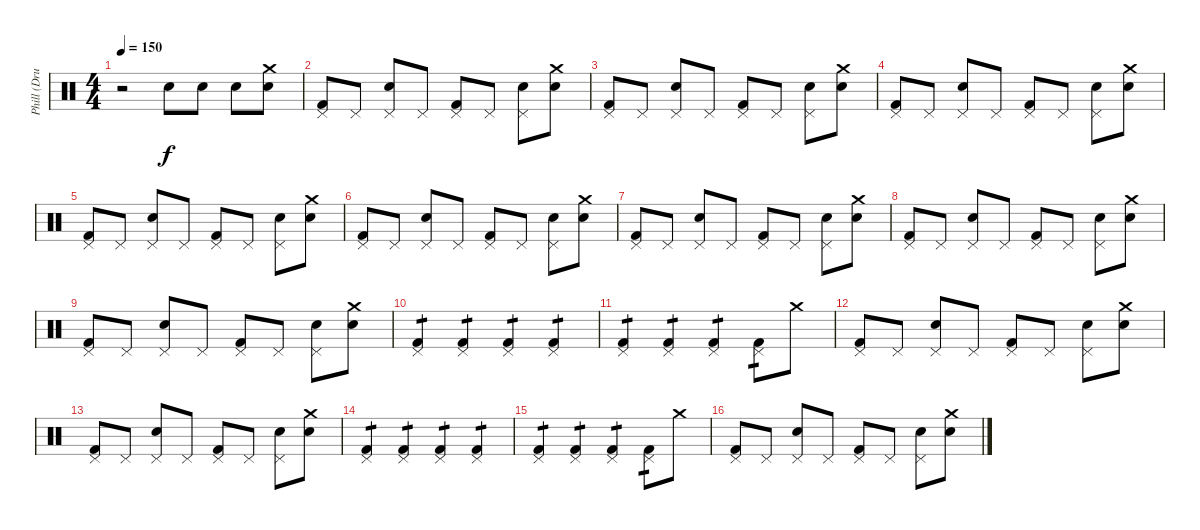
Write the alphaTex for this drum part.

\track ("Phill (Drums)" "Phill (Dru") {instrument percussion}
\staff {score}
\articulation defaults
\ts (4 4)
\tempo 150
\clef neutral
\ks c
r.2{dy f} "Snare (hit) 2".8 "Snare (hit) 2".8 "Snare (hit) 2".8 ("Crash medium (hit)" "Snare (hit) 2").8 |
("Kick (hit) 2" "Pedal Hi-Hat (hit)").8 "Pedal Hi-Hat (hit)".8 ("Snare (hit) 2" "Pedal Hi-Hat (hit)").8 "Pedal Hi-Hat (hit)".8 ("Kick (hit) 2" "Pedal Hi-Hat (hit)").8 "Pedal Hi-Hat (hit)".8 ("Snare (hit) 2" "Pedal Hi-Hat (hit)").8 ("Snare (hit) 2" "Crash medium (hit)").8 |
("Kick (hit) 2" "Pedal Hi-Hat (hit)").8 "Pedal Hi-Hat (hit)".8 ("Snare (hit) 2" "Pedal Hi-Hat (hit)").8 "Pedal Hi-Hat (hit)".8 ("Kick (hit) 2" "Pedal Hi-Hat (hit)").8 "Pedal Hi-Hat (hit)".8 ("Snare (hit) 2" "Pedal Hi-Hat (hit)").8 ("Snare (hit) 2" "Crash medium (hit)").8 |
("Kick (hit) 2" "Pedal Hi-Hat (hit)").8 "Pedal Hi-Hat (hit)".8 ("Snare (hit) 2" "Pedal Hi-Hat (hit)").8 "Pedal Hi-Hat (hit)".8 ("Kick (hit) 2" "Pedal Hi-Hat (hit)").8 "Pedal Hi-Hat (hit)".8 ("Snare (hit) 2" "Pedal Hi-Hat (hit)").8 ("Snare (hit) 2" "Crash medium (hit)").8 |
("Kick (hit) 2" "Pedal Hi-Hat (hit)").8 "Pedal Hi-Hat (hit)".8 ("Snare (hit) 2" "Pedal Hi-Hat (hit)").8 "Pedal Hi-Hat (hit)".8 ("Kick (hit) 2" "Pedal Hi-Hat (hit)").8 "Pedal Hi-Hat (hit)".8 ("Snare (hit) 2" "Pedal Hi-Hat (hit)").8 ("Snare (hit) 2" "Crash medium (hit)").8 |
("Kick (hit) 2" "Pedal Hi-Hat (hit)").8 "Pedal Hi-Hat (hit)".8 ("Snare (hit) 2" "Pedal Hi-Hat (hit)").8 "Pedal Hi-Hat (hit)".8 ("Kick (hit) 2" "Pedal Hi-Hat (hit)").8 "Pedal Hi-Hat (hit)".8 ("Snare (hit) 2" "Pedal Hi-Hat (hit)").8 ("Snare (hit) 2" "Crash medium (hit)").8 |
("Kick (hit) 2" "Pedal Hi-Hat (hit)").8 "Pedal Hi-Hat (hit)".8 ("Snare (hit) 2" "Pedal Hi-Hat (hit)").8 "Pedal Hi-Hat (hit)".8 ("Kick (hit) 2" "Pedal Hi-Hat (hit)").8 "Pedal Hi-Hat (hit)".8 ("Snare (hit) 2" "Pedal Hi-Hat (hit)").8 ("Snare (hit) 2" "Crash medium (hit)").8 |
("Kick (hit) 2" "Pedal Hi-Hat (hit)").8 "Pedal Hi-Hat (hit)".8 ("Snare (hit) 2" "Pedal Hi-Hat (hit)").8 "Pedal Hi-Hat (hit)".8 ("Kick (hit) 2" "Pedal Hi-Hat (hit)").8 "Pedal Hi-Hat (hit)".8 ("Snare (hit) 2" "Pedal Hi-Hat (hit)").8 ("Snare (hit) 2" "Crash medium (hit)").8 |
("Kick (hit) 2" "Pedal Hi-Hat (hit)").8 "Pedal Hi-Hat (hit)".8 ("Snare (hit) 2" "Pedal Hi-Hat (hit)").8 "Pedal Hi-Hat (hit)".8 ("Kick (hit) 2" "Pedal Hi-Hat (hit)").8 "Pedal Hi-Hat (hit)".8 ("Snare (hit) 2" "Pedal Hi-Hat (hit)").8 ("Snare (hit) 2" "Crash medium (hit)").8 |
("Kick (hit) 2" "Pedal Hi-Hat (hit)").4{tp 1} ("Kick (hit) 2" "Pedal Hi-Hat (hit)").4{tp 1} ("Kick (hit) 2" "Pedal Hi-Hat (hit)").4{tp 1} ("Kick (hit) 2" "Pedal Hi-Hat (hit)").4{tp 1} |
("Kick (hit) 2" "Pedal Hi-Hat (hit)").4{tp 1} ("Kick (hit) 2" "Pedal Hi-Hat (hit)").4{tp 1} ("Kick (hit) 2" "Pedal Hi-Hat (hit)").4{tp 1} ("Kick (hit) 2" "Pedal Hi-Hat (hit)").8{tp 1} "Crash medium (hit)".8 |
("Kick (hit) 2" "Pedal Hi-Hat (hit)").8 "Pedal Hi-Hat (hit)".8 ("Snare (hit) 2" "Pedal Hi-Hat (hit)").8 "Pedal Hi-Hat (hit)".8 ("Kick (hit) 2" "Pedal Hi-Hat (hit)").8 "Pedal Hi-Hat (hit)".8 ("Snare (hit) 2" "Pedal Hi-Hat (hit)").8 ("Snare (hit) 2" "Crash medium (hit)").8 |
("Kick (hit) 2" "Pedal Hi-Hat (hit)").8 "Pedal Hi-Hat (hit)".8 ("Snare (hit) 2" "Pedal Hi-Hat (hit)").8 "Pedal Hi-Hat (hit)".8 ("Kick (hit) 2" "Pedal Hi-Hat (hit)").8 "Pedal Hi-Hat (hit)".8 ("Snare (hit) 2" "Pedal Hi-Hat (hit)").8 ("Snare (hit) 2" "Crash medium (hit)").8 |
("Kick (hit) 2" "Pedal Hi-Hat (hit)").4{tp 1} ("Kick (hit) 2" "Pedal Hi-Hat (hit)").4{tp 1} ("Kick (hit) 2" "Pedal Hi-Hat (hit)").4{tp 1} ("Kick (hit) 2" "Pedal Hi-Hat (hit)").4{tp 1} |
("Kick (hit) 2" "Pedal Hi-Hat (hit)").4{tp 1} ("Kick (hit) 2" "Pedal Hi-Hat (hit)").4{tp 1} ("Kick (hit) 2" "Pedal Hi-Hat (hit)").4{tp 1} ("Kick (hit) 2" "Pedal Hi-Hat (hit)").8{tp 1} "Crash medium (hit)".8 |
("Kick (hit) 2" "Pedal Hi-Hat (hit)").8 "Pedal Hi-Hat (hit)".8 ("Snare (hit) 2" "Pedal Hi-Hat (hit)").8 "Pedal Hi-Hat (hit)".8 ("Kick (hit) 2" "Pedal Hi-Hat (hit)").8 "Pedal Hi-Hat (hit)".8 ("Snare (hit) 2" "Pedal Hi-Hat (hit)").8 ("Snare (hit) 2" "Crash medium (hit)").8
